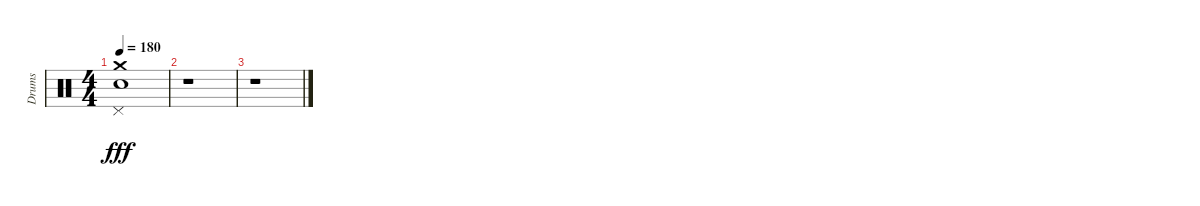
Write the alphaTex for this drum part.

\track ("Drums" "Drums") {instrument percussion}
\staff {score}
\articulation defaults
\ts (4 4)
\tempo 180
\clef neutral
\ks c
("Pedal Hi-Hat (hit)" "Snare (hit) 2" "Crash medium (hit)").1{dy fff} |
r.1 |
r.1
